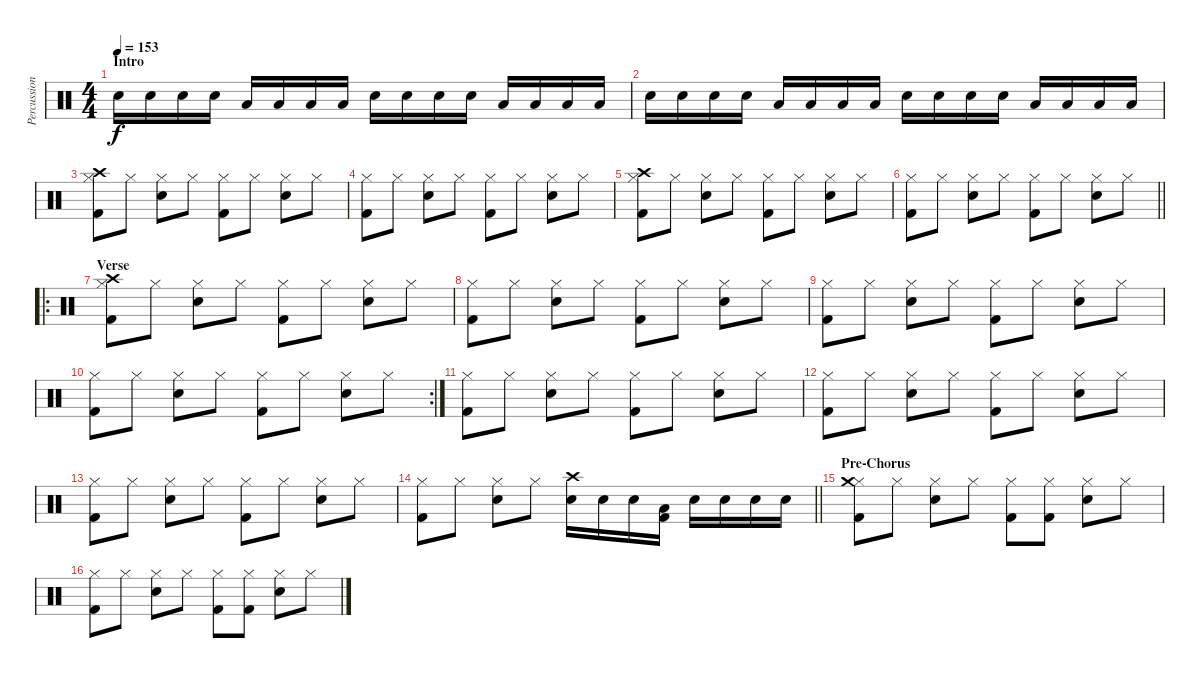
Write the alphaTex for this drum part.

\track ("Percussion" "Percussion") {instrument percussion}
\staff {score}
\articulation defaults
\ts (4 4)
\section ("" "Intro")
\tempo 153
\clef neutral
\ks c "Snare (hit) 2".16{dy f} "Snare (hit) 2".16 "Snare (hit) 2".16 "Snare (hit) 2".16 "Low Floor Tom (hit)".16 "Low Floor Tom (hit)".16 "Low Floor Tom (hit)".16 "Low Floor Tom (hit)".16 "Snare (hit) 2".16 "Snare (hit) 2".16 "Snare (hit) 2".16 "Snare (hit) 2".16 "Low Floor Tom (hit)".16 "Low Floor Tom (hit)".16 "Low Floor Tom (hit)".16 "Low Floor Tom (hit)".16
|
"Snare (hit) 2".16 "Snare (hit) 2".16 "Snare (hit) 2".16 "Snare (hit) 2".16 "Low Floor Tom (hit)".16 "Low Floor Tom (hit)".16 "Low Floor Tom (hit)".16 "Low Floor Tom (hit)".16 "Snare (hit) 2".16 "Snare (hit) 2".16 "Snare (hit) 2".16 "Snare (hit) 2".16 "Low Floor Tom (hit)".16 "Low Floor Tom (hit)".16 "Low Floor Tom (hit)".16 "Low Floor Tom (hit)".16 |
("Hi-Hat (closed)" "Crash high (hit)" "Kick (hit) 2").8 "Hi-Hat (closed)".8 ("Hi-Hat (closed)" "Snare (hit) 2").8 "Hi-Hat (closed)".8 ("Hi-Hat (closed)" "Kick (hit) 2").8 "Hi-Hat (closed)".8 ("Hi-Hat (closed)" "Snare (hit) 2").8 "Hi-Hat (closed)".8 |
("Hi-Hat (closed)" "Kick (hit) 2").8 "Hi-Hat (closed)".8 ("Hi-Hat (closed)" "Snare (hit) 2").8 "Hi-Hat (closed)".8 ("Hi-Hat (closed)" "Kick (hit) 2").8 "Hi-Hat (closed)".8 ("Hi-Hat (closed)" "Snare (hit) 2").8 "Hi-Hat (closed)".8 |
("Hi-Hat (closed)" "Crash high (hit)" "Kick (hit) 2").8 "Hi-Hat (closed)".8 ("Hi-Hat (closed)" "Snare (hit) 2").8 "Hi-Hat (closed)".8 ("Hi-Hat (closed)" "Kick (hit) 2").8 "Hi-Hat (closed)".8 ("Hi-Hat (closed)" "Snare (hit) 2").8 "Hi-Hat (closed)".8 |
\barLineRight lightlight
("Hi-Hat (closed)" "Kick (hit) 2").8 "Hi-Hat (closed)".8 ("Hi-Hat (closed)" "Snare (hit) 2").8 "Hi-Hat (closed)".8 ("Hi-Hat (closed)" "Kick (hit) 2").8 "Hi-Hat (closed)".8 ("Hi-Hat (closed)" "Snare (hit) 2").8 "Hi-Hat (closed)".8 |
\ro
\section ("" "Verse")
("Hi-Hat (closed)" "Crash high (hit)" "Kick (hit) 2").8 "Hi-Hat (closed)".8 ("Hi-Hat (closed)" "Snare (hit) 2").8 "Hi-Hat (closed)".8 ("Hi-Hat (closed)" "Kick (hit) 2").8 "Hi-Hat (closed)".8 ("Hi-Hat (closed)" "Snare (hit) 2").8 "Hi-Hat (closed)".8 |
("Hi-Hat (closed)" "Kick (hit) 2").8 "Hi-Hat (closed)".8 ("Hi-Hat (closed)" "Snare (hit) 2").8 "Hi-Hat (closed)".8 ("Hi-Hat (closed)" "Kick (hit) 2").8 "Hi-Hat (closed)".8 ("Hi-Hat (closed)" "Snare (hit) 2").8 "Hi-Hat (closed)".8 |
("Hi-Hat (closed)" "Kick (hit) 2").8 "Hi-Hat (closed)".8 ("Hi-Hat (closed)" "Snare (hit) 2").8 "Hi-Hat (closed)".8 ("Hi-Hat (closed)" "Kick (hit) 2").8 "Hi-Hat (closed)".8 ("Hi-Hat (closed)" "Snare (hit) 2").8 "Hi-Hat (closed)".8 |
\rc 2
("Hi-Hat (closed)" "Kick (hit) 2").8 "Hi-Hat (closed)".8 ("Hi-Hat (closed)" "Snare (hit) 2").8 "Hi-Hat (closed)".8 ("Hi-Hat (closed)" "Kick (hit) 2").8 "Hi-Hat (closed)".8 ("Hi-Hat (closed)" "Snare (hit) 2").8 "Hi-Hat (closed)".8 |
("Hi-Hat (closed)" "Kick (hit) 2").8 "Hi-Hat (closed)".8 ("Hi-Hat (closed)" "Snare (hit) 2").8 "Hi-Hat (closed)".8 ("Hi-Hat (closed)" "Kick (hit) 2").8 "Hi-Hat (closed)".8 ("Hi-Hat (closed)" "Snare (hit) 2").8 "Hi-Hat (closed)".8 |
("Hi-Hat (closed)" "Kick (hit) 2").8 "Hi-Hat (closed)".8 ("Hi-Hat (closed)" "Snare (hit) 2").8 "Hi-Hat (closed)".8 ("Hi-Hat (closed)" "Kick (hit) 2").8 "Hi-Hat (closed)".8 ("Hi-Hat (closed)" "Snare (hit) 2").8 "Hi-Hat (closed)".8 |
("Hi-Hat (closed)" "Kick (hit) 2").8 "Hi-Hat (closed)".8 ("Hi-Hat (closed)" "Snare (hit) 2").8 "Hi-Hat (closed)".8 ("Hi-Hat (closed)" "Kick (hit) 2").8 "Hi-Hat (closed)".8 ("Hi-Hat (closed)" "Snare (hit) 2").8 "Hi-Hat (closed)".8 |
\barLineRight lightlight
("Hi-Hat (closed)" "Kick (hit) 2").8 "Hi-Hat (closed)".8 ("Hi-Hat (closed)" "Snare (hit) 2").8 "Hi-Hat (closed)".8 ("Crash high (hit)" "Snare (hit) 2").16 "Snare (hit) 2".16 "Snare (hit) 2".16 ("Low Floor Tom (hit)" "Kick (hit) 2").16 "Snare (hit) 2".16 "Snare (hit) 2".16 "Snare (hit) 2".16 "Snare (hit) 2".16 |
\section ("" "Pre-Chorus")
("Hi-Hat (closed)" "Crash medium (hit)" "Kick (hit) 2").8 "Hi-Hat (closed)".8 ("Hi-Hat (closed)" "Snare (hit) 2").8 "Hi-Hat (closed)".8 ("Hi-Hat (closed)" "Kick (hit) 2").8 ("Hi-Hat (closed)" "Kick (hit) 2").8 ("Hi-Hat (closed)" "Snare (hit) 2").8 "Hi-Hat (closed)".8 |
("Hi-Hat (closed)" "Kick (hit) 2").8 "Hi-Hat (closed)".8 ("Hi-Hat (closed)" "Snare (hit) 2").8 "Hi-Hat (closed)".8 ("Hi-Hat (closed)" "Kick (hit) 2").8 ("Hi-Hat (closed)" "Kick (hit) 2").8 ("Hi-Hat (closed)" "Snare (hit) 2").8 "Hi-Hat (closed)".8
